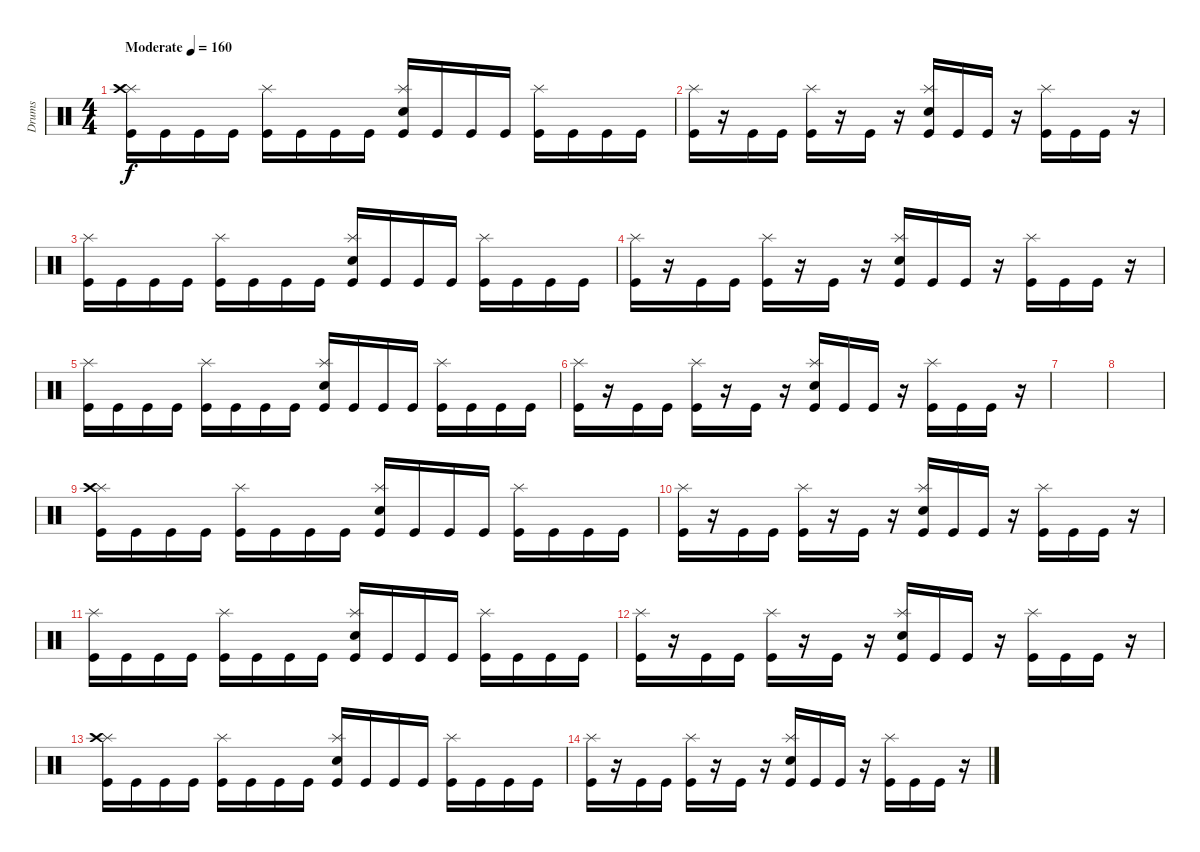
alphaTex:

\track ("Drums" "Drums") {instrument percussion}
\staff {score}
\articulation defaults
\ts (4 4)
\tempo (160 "Moderate")
\clef neutral
\ks c
("Kick (hit)" "Splash (hit)" "Crash high (hit)").16{dy f} "Kick (hit)".16 "Kick (hit)".16 "Kick (hit)".16 ("Kick (hit)" "Splash (hit)").16 "Kick (hit)".16 "Kick (hit)".16 "Kick (hit)".16 ("Kick (hit)" "Electric Snare (hit)" "Splash (hit)").16 "Kick (hit)".16 "Kick (hit)".16 "Kick (hit)".16 ("Kick (hit)" "Splash (hit)").16 "Kick (hit)".16 "Kick (hit)".16 "Kick (hit)".16 |
("Kick (hit)" "Splash (hit)").16 r.16 "Kick (hit)".16 "Kick (hit)".16 ("Kick (hit)" "Splash (hit)").16 r.16 "Kick (hit)".16 r.16 ("Kick (hit)" "Splash (hit)" "Electric Snare (hit)").16 "Kick (hit)".16 "Kick (hit)".16 r.16 ("Kick (hit)" "Splash (hit)").16 "Kick (hit)".16 "Kick (hit)".16 r.16 |
("Kick (hit)" "Splash (hit)").16 "Kick (hit)".16 "Kick (hit)".16 "Kick (hit)".16 ("Kick (hit)" "Splash (hit)").16 "Kick (hit)".16 "Kick (hit)".16 "Kick (hit)".16 ("Kick (hit)" "Electric Snare (hit)" "Splash (hit)").16 "Kick (hit)".16 "Kick (hit)".16 "Kick (hit)".16 ("Kick (hit)" "Splash (hit)").16 "Kick (hit)".16 "Kick (hit)".16 "Kick (hit)".16 |
("Kick (hit)" "Splash (hit)").16 r.16 "Kick (hit)".16 "Kick (hit)".16 ("Kick (hit)" "Splash (hit)").16 r.16 "Kick (hit)".16 r.16 ("Kick (hit)" "Splash (hit)" "Electric Snare (hit)").16 "Kick (hit)".16 "Kick (hit)".16 r.16 ("Kick (hit)" "Splash (hit)").16 "Kick (hit)".16 "Kick (hit)".16 r.16 |
("Kick (hit)" "Splash (hit)").16 "Kick (hit)".16 "Kick (hit)".16 "Kick (hit)".16 ("Kick (hit)" "Splash (hit)").16 "Kick (hit)".16 "Kick (hit)".16 "Kick (hit)".16 ("Kick (hit)" "Electric Snare (hit)" "Splash (hit)").16 "Kick (hit)".16 "Kick (hit)".16 "Kick (hit)".16 ("Kick (hit)" "Splash (hit)").16 "Kick (hit)".16 "Kick (hit)".16 "Kick (hit)".16 |
("Kick (hit)" "Splash (hit)").16 r.16 "Kick (hit)".16 "Kick (hit)".16 ("Kick (hit)" "Splash (hit)").16 r.16 "Kick (hit)".16 r.16 ("Kick (hit)" "Splash (hit)" "Electric Snare (hit)").16 "Kick (hit)".16 "Kick (hit)".16 r.16 ("Kick (hit)" "Splash (hit)").16 "Kick (hit)".16 "Kick (hit)".16 r.16 |
|
|
("Kick (hit)" "Splash (hit)" "Crash high (hit)").16 "Kick (hit)".16 "Kick (hit)".16 "Kick (hit)".16 ("Kick (hit)" "Splash (hit)").16 "Kick (hit)".16 "Kick (hit)".16 "Kick (hit)".16 ("Kick (hit)" "Electric Snare (hit)" "Splash (hit)").16 "Kick (hit)".16 "Kick (hit)".16 "Kick (hit)".16 ("Kick (hit)" "Splash (hit)").16 "Kick (hit)".16 "Kick (hit)".16 "Kick (hit)".16 |
("Kick (hit)" "Splash (hit)").16 r.16 "Kick (hit)".16 "Kick (hit)".16 ("Kick (hit)" "Splash (hit)").16 r.16 "Kick (hit)".16 r.16 ("Kick (hit)" "Splash (hit)" "Electric Snare (hit)").16 "Kick (hit)".16 "Kick (hit)".16 r.16 ("Kick (hit)" "Splash (hit)").16 "Kick (hit)".16 "Kick (hit)".16 r.16 |
("Kick (hit)" "Splash (hit)").16 "Kick (hit)".16 "Kick (hit)".16 "Kick (hit)".16 ("Kick (hit)" "Splash (hit)").16 "Kick (hit)".16 "Kick (hit)".16 "Kick (hit)".16 ("Kick (hit)" "Electric Snare (hit)" "Splash (hit)").16 "Kick (hit)".16 "Kick (hit)".16 "Kick (hit)".16 ("Kick (hit)" "Splash (hit)").16 "Kick (hit)".16 "Kick (hit)".16 "Kick (hit)".16 |
("Kick (hit)" "Splash (hit)").16 r.16 "Kick (hit)".16 "Kick (hit)".16 ("Kick (hit)" "Splash (hit)").16 r.16 "Kick (hit)".16 r.16 ("Kick (hit)" "Splash (hit)" "Electric Snare (hit)").16 "Kick (hit)".16 "Kick (hit)".16 r.16 ("Kick (hit)" "Splash (hit)").16 "Kick (hit)".16 "Kick (hit)".16 r.16 |
("Kick (hit)" "Splash (hit)" "Crash high (hit)").16 "Kick (hit)".16 "Kick (hit)".16 "Kick (hit)".16 ("Kick (hit)" "Splash (hit)").16 "Kick (hit)".16 "Kick (hit)".16 "Kick (hit)".16 ("Kick (hit)" "Electric Snare (hit)" "Splash (hit)").16 "Kick (hit)".16 "Kick (hit)".16 "Kick (hit)".16 ("Kick (hit)" "Splash (hit)").16 "Kick (hit)".16 "Kick (hit)".16 "Kick (hit)".16 |
("Kick (hit)" "Splash (hit)").16 r.16 "Kick (hit)".16 "Kick (hit)".16 ("Kick (hit)" "Splash (hit)").16 r.16 "Kick (hit)".16 r.16 ("Kick (hit)" "Splash (hit)" "Electric Snare (hit)").16 "Kick (hit)".16 "Kick (hit)".16 r.16 ("Kick (hit)" "Splash (hit)").16 "Kick (hit)".16 "Kick (hit)".16 r.16
